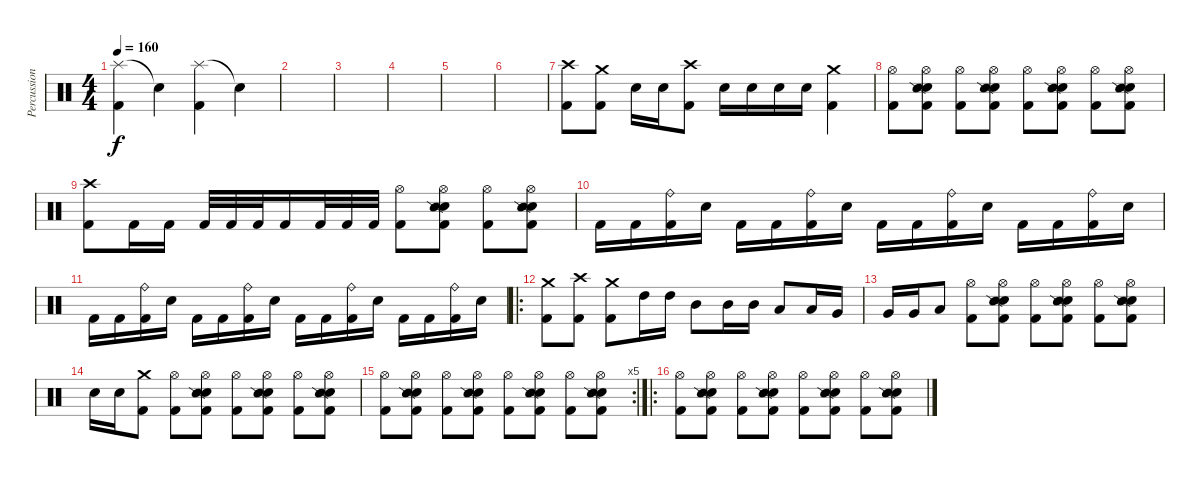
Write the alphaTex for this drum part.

\track ("Percussion" "Percussion") {instrument percussion}
\staff {score}
\articulation defaults
\ts (4 4)
\tempo 160
\clef neutral
\ks c
("Splash (hit)" "Kick (hit) 2").4{dy f volume 10} "Snare (hit)"{t}.4 ("Splash (hit)" "Kick (hit) 2").4 "Snare (hit)"{t}.4 |
|
|
|
|
|
("Crash high (hit)" "Kick (hit) 2").8 ("Crash medium (hit)" "Kick (hit) 2").8 "Electric Snare (hit)".16 "Electric Snare (hit)".16 ("Crash high (hit)" "Kick (hit) 2").8 "Electric Snare (hit)".16 "Electric Snare (hit)".16 "Electric Snare (hit)".16 "Electric Snare (hit)".16 ("Crash medium (hit)" "Kick (hit) 2").4 |
("Hi-Hat (open)" "Kick (hit) 2").8 ("Hi-Hat (open)" "Electric Snare (hit)" "Snare (side stick) 2" "Kick (hit) 2").8 ("Hi-Hat (open)" "Kick (hit) 2").8 ("Hi-Hat (open)" "Electric Snare (hit)" "Snare (side stick) 2" "Kick (hit) 2").8 ("Hi-Hat (open)" "Kick (hit) 2").8 ("Hi-Hat (open)" "Electric Snare (hit)" "Snare (side stick) 2" "Kick (hit) 2").8 ("Hi-Hat (open)" "Kick (hit) 2").8 ("Hi-Hat (open)" "Electric Snare (hit)" "Snare (side stick) 2" "Kick (hit) 2").8 |
("Crash high (hit)" "Kick (hit) 2").8 "Kick (hit) 2".16 "Kick (hit) 2".16 "Kick (hit) 2".32 "Kick (hit) 2".32 "Kick (hit) 2".32 "Kick (hit) 2".16 "Kick (hit) 2".32 "Kick (hit) 2".32 "Kick (hit) 2".32 ("Hi-Hat (open)" "Kick (hit) 2").8 ("Hi-Hat (open)" "Electric Snare (hit)" "Snare (side stick) 2" "Kick (hit) 2").8 ("Hi-Hat (open)" "Kick (hit) 2").8 ("Hi-Hat (open)" "Electric Snare (hit)" "Snare (side stick) 2" "Kick (hit) 2").8 |
"Kick (hit) 2".16 "Kick (hit) 2".16 ("Ride (bell)" "Kick (hit) 2").16 "Electric Snare (hit)".16 "Kick (hit) 2".16 "Kick (hit) 2".16 ("Ride (bell)" "Kick (hit) 2").16 "Electric Snare (hit)".16 "Kick (hit) 2".16 "Kick (hit) 2".16 ("Ride (bell)" "Kick (hit) 2").16 "Electric Snare (hit)".16 "Kick (hit) 2".16 "Kick (hit) 2".16 ("Ride (bell)" "Kick (hit) 2").16 "Electric Snare (hit)".16 |
"Kick (hit) 2".16 "Kick (hit) 2".16 ("Ride (bell)" "Kick (hit) 2").16 "Electric Snare (hit)".16 "Kick (hit) 2".16 "Kick (hit) 2".16 ("Ride (bell)" "Kick (hit) 2").16 "Electric Snare (hit)".16 "Kick (hit) 2".16 "Kick (hit) 2".16 ("Ride (bell)" "Kick (hit) 2").16 "Electric Snare (hit)".16 "Kick (hit) 2".16 "Kick (hit) 2".16 ("Ride (bell)" "Kick (hit) 2").16 "Electric Snare (hit)".16 |
\ro
("Crash medium (hit)" "Kick (hit) 2").8 ("Crash high (hit)" "Kick (hit) 2").8 ("Crash medium (hit)" "Kick (hit) 2").8 "High Tom (hit)".16 "High Tom (hit)".16 "Mid Tom (hit)".8 "Mid Tom (hit)".16 "Mid Tom (hit)".16 "Low Tom (hit)".8 "Low Tom (hit)".16 "Very Low Tom (hit)".16 |
"Very Low Tom (hit)".16 "Very Low Tom (hit)".16 "Low Floor Tom (hit)".8 ("Hi-Hat (open)" "Kick (hit) 2").8 ("Hi-Hat (open)" "Electric Snare (hit)" "Snare (side stick) 2" "Kick (hit) 2").8 ("Hi-Hat (open)" "Kick (hit) 2").8 ("Hi-Hat (open)" "Electric Snare (hit)" "Snare (side stick) 2" "Kick (hit) 2").8 ("Hi-Hat (open)" "Kick (hit) 2").8 ("Hi-Hat (open)" "Electric Snare (hit)" "Snare (side stick) 2" "Kick (hit) 2").8 |
"Electric Snare (hit)".16 "Electric Snare (hit)".16 ("Crash medium (hit)" "Kick (hit) 2").8 ("Hi-Hat (open)" "Kick (hit) 2").8 ("Hi-Hat (open)" "Electric Snare (hit)" "Snare (side stick) 2" "Kick (hit) 2").8 ("Hi-Hat (open)" "Kick (hit) 2").8 ("Hi-Hat (open)" "Electric Snare (hit)" "Snare (side stick) 2" "Kick (hit) 2").8 ("Hi-Hat (open)" "Kick (hit) 2").8 ("Hi-Hat (open)" "Electric Snare (hit)" "Snare (side stick) 2" "Kick (hit) 2").8 |
\rc 5
("Hi-Hat (open)" "Kick (hit) 2").8 ("Hi-Hat (open)" "Electric Snare (hit)" "Snare (side stick) 2" "Kick (hit) 2").8 ("Hi-Hat (open)" "Kick (hit) 2").8 ("Hi-Hat (open)" "Electric Snare (hit)" "Snare (side stick) 2" "Kick (hit) 2").8 ("Hi-Hat (open)" "Kick (hit) 2").8 ("Hi-Hat (open)" "Electric Snare (hit)" "Snare (side stick) 2" "Kick (hit) 2").8 ("Hi-Hat (open)" "Kick (hit) 2").8 ("Hi-Hat (open)" "Electric Snare (hit)" "Snare (side stick) 2" "Kick (hit) 2").8 |
\ro
("Hi-Hat (open)" "Kick (hit) 2").8 ("Hi-Hat (open)" "Electric Snare (hit)" "Snare (side stick) 2" "Kick (hit) 2").8 ("Hi-Hat (open)" "Kick (hit) 2").8 ("Hi-Hat (open)" "Electric Snare (hit)" "Snare (side stick) 2" "Kick (hit) 2").8 ("Hi-Hat (open)" "Kick (hit) 2").8 ("Hi-Hat (open)" "Electric Snare (hit)" "Snare (side stick) 2" "Kick (hit) 2").8 ("Hi-Hat (open)" "Kick (hit) 2").8 ("Hi-Hat (open)" "Electric Snare (hit)" "Snare (side stick) 2" "Kick (hit) 2").8
